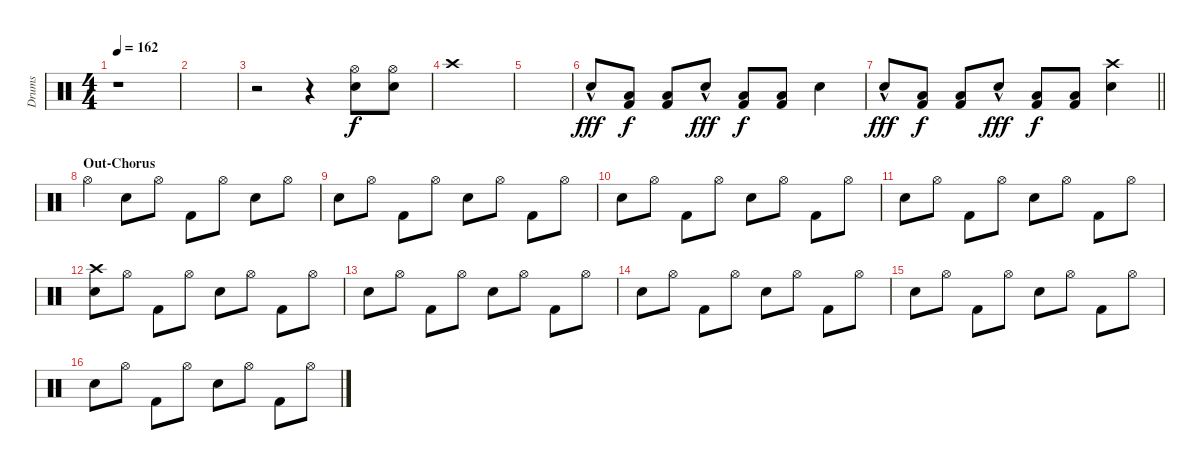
\track ("Drums" "Drums") {instrument percussion}
\staff {score}
\articulation defaults
\ts (4 4)
\tempo 162
\clef neutral
\ks c
r.1{dy f} |
|
r.2 r.4 ("Hi-Hat (open)" "Electric Snare (hit)").8{volume 16} ("Hi-Hat (open)" "Electric Snare (hit)").8 |
"Crash high (hit)".1 |
|
"Electric Snare (hit)"{hac}.8{dy fff} ("Low Tom (hit)" "Kick (hit) 2").8{dy f} ("Low Tom (hit)" "Kick (hit) 2").8 "Electric Snare (hit)"{hac}.8{dy fff} ("Low Tom (hit)" "Kick (hit) 2").8{dy f} ("Low Tom (hit)" "Kick (hit) 2").8 "Electric Snare (hit)".4 |
\barLineRight lightlight "Electric Snare (hit)"{hac}.8{dy fff}
("Low Tom (hit)" "Kick (hit) 2").8{dy f} ("Low Tom (hit)" "Kick (hit) 2").8 "Electric Snare (hit)"{hac}.8{dy fff} ("Low Tom (hit)" "Kick (hit) 2").8{dy f} ("Low Tom (hit)" "Kick (hit) 2").8 ("Crash high (hit)" "Electric Snare (hit)").4 |
\section ("" "Out-Chorus")
"Hi-Hat (open)".4 "Electric Snare (hit)".8 "Hi-Hat (open)".8 "Kick (hit) 2".8 "Hi-Hat (open)".8 "Electric Snare (hit)".8 "Hi-Hat (open)".8 |
"Electric Snare (hit)".8 "Hi-Hat (open)".8 "Kick (hit) 2".8 "Hi-Hat (open)".8 "Electric Snare (hit)".8 "Hi-Hat (open)".8 "Kick (hit) 2".8 "Hi-Hat (open)".8 |
"Electric Snare (hit)".8 "Hi-Hat (open)".8 "Kick (hit) 2".8 "Hi-Hat (open)".8 "Electric Snare (hit)".8 "Hi-Hat (open)".8 "Kick (hit) 2".8 "Hi-Hat (open)".8 |
"Electric Snare (hit)".8 "Hi-Hat (open)".8 "Kick (hit) 2".8 "Hi-Hat (open)".8 "Electric Snare (hit)".8 "Hi-Hat (open)".8 "Kick (hit) 2".8 "Hi-Hat (open)".8 |
("Crash high (hit)" "Electric Snare (hit)").8 "Hi-Hat (open)".8 "Kick (hit) 2".8 "Hi-Hat (open)".8 "Electric Snare (hit)".8 "Hi-Hat (open)".8 "Kick (hit) 2".8 "Hi-Hat (open)".8 |
"Electric Snare (hit)".8 "Hi-Hat (open)".8 "Kick (hit) 2".8 "Hi-Hat (open)".8 "Electric Snare (hit)".8 "Hi-Hat (open)".8 "Kick (hit) 2".8 "Hi-Hat (open)".8 |
"Electric Snare (hit)".8 "Hi-Hat (open)".8 "Kick (hit) 2".8 "Hi-Hat (open)".8 "Electric Snare (hit)".8 "Hi-Hat (open)".8 "Kick (hit) 2".8 "Hi-Hat (open)".8 |
"Electric Snare (hit)".8 "Hi-Hat (open)".8 "Kick (hit) 2".8 "Hi-Hat (open)".8 "Electric Snare (hit)".8 "Hi-Hat (open)".8 "Kick (hit) 2".8 "Hi-Hat (open)".8 |
"Electric Snare (hit)".8 "Hi-Hat (open)".8 "Kick (hit) 2".8 "Hi-Hat (open)".8 "Electric Snare (hit)".8 "Hi-Hat (open)".8 "Kick (hit) 2".8 "Hi-Hat (open)".8
